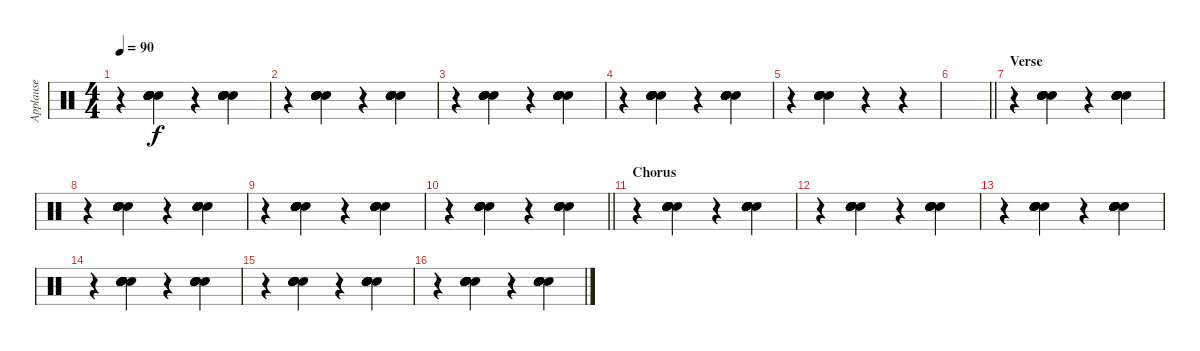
\track ("Applause" "Applause") {instrument percussion}
\staff {score}
\articulation defaults
\ts (4 4)
\tempo 90
\clef neutral
\ks c
r.4{dy f} ("Hand Clap (hit)" "Hand Clap (hit)" "Hand Clap (hit)" "Hand Clap (hit)" "Hand Clap (hit)" "Hand Clap (hit)").4 r.4 ("Hand Clap (hit)" "Hand Clap (hit)" "Hand Clap (hit)" "Hand Clap (hit)" "Hand Clap (hit)" "Hand Clap (hit)").4 |
r.4 ("Hand Clap (hit)" "Hand Clap (hit)" "Hand Clap (hit)" "Hand Clap (hit)" "Hand Clap (hit)" "Hand Clap (hit)").4 r.4 ("Hand Clap (hit)" "Hand Clap (hit)" "Hand Clap (hit)" "Hand Clap (hit)" "Hand Clap (hit)" "Hand Clap (hit)").4 |
r.4 ("Hand Clap (hit)" "Hand Clap (hit)" "Hand Clap (hit)" "Hand Clap (hit)" "Hand Clap (hit)" "Hand Clap (hit)").4 r.4 ("Hand Clap (hit)" "Hand Clap (hit)" "Hand Clap (hit)" "Hand Clap (hit)" "Hand Clap (hit)" "Hand Clap (hit)").4 |
r.4 ("Hand Clap (hit)" "Hand Clap (hit)" "Hand Clap (hit)" "Hand Clap (hit)" "Hand Clap (hit)" "Hand Clap (hit)").4 r.4 ("Hand Clap (hit)" "Hand Clap (hit)" "Hand Clap (hit)" "Hand Clap (hit)" "Hand Clap (hit)" "Hand Clap (hit)").4 |
r.4 ("Hand Clap (hit)" "Hand Clap (hit)" "Hand Clap (hit)" "Hand Clap (hit)" "Hand Clap (hit)" "Hand Clap (hit)").4 r.4 r.4 |
\barLineRight lightlight
|
\section ("" "Verse")
r.4 ("Hand Clap (hit)" "Hand Clap (hit)" "Hand Clap (hit)" "Hand Clap (hit)" "Hand Clap (hit)" "Hand Clap (hit)").4 r.4 ("Hand Clap (hit)" "Hand Clap (hit)" "Hand Clap (hit)" "Hand Clap (hit)" "Hand Clap (hit)" "Hand Clap (hit)").4 |
r.4 ("Hand Clap (hit)" "Hand Clap (hit)" "Hand Clap (hit)" "Hand Clap (hit)" "Hand Clap (hit)" "Hand Clap (hit)").4 r.4 ("Hand Clap (hit)" "Hand Clap (hit)" "Hand Clap (hit)" "Hand Clap (hit)" "Hand Clap (hit)" "Hand Clap (hit)").4 |
r.4 ("Hand Clap (hit)" "Hand Clap (hit)" "Hand Clap (hit)" "Hand Clap (hit)" "Hand Clap (hit)" "Hand Clap (hit)").4 r.4 ("Hand Clap (hit)" "Hand Clap (hit)" "Hand Clap (hit)" "Hand Clap (hit)" "Hand Clap (hit)" "Hand Clap (hit)").4 |
\barLineRight lightlight
r.4 ("Hand Clap (hit)" "Hand Clap (hit)" "Hand Clap (hit)" "Hand Clap (hit)" "Hand Clap (hit)" "Hand Clap (hit)").4 r.4 ("Hand Clap (hit)" "Hand Clap (hit)" "Hand Clap (hit)" "Hand Clap (hit)" "Hand Clap (hit)" "Hand Clap (hit)").4 |
\section ("" "Chorus")
r.4 ("Hand Clap (hit)" "Hand Clap (hit)" "Hand Clap (hit)" "Hand Clap (hit)" "Hand Clap (hit)" "Hand Clap (hit)").4 r.4 ("Hand Clap (hit)" "Hand Clap (hit)" "Hand Clap (hit)" "Hand Clap (hit)" "Hand Clap (hit)" "Hand Clap (hit)").4 |
r.4 ("Hand Clap (hit)" "Hand Clap (hit)" "Hand Clap (hit)" "Hand Clap (hit)" "Hand Clap (hit)" "Hand Clap (hit)").4 r.4 ("Hand Clap (hit)" "Hand Clap (hit)" "Hand Clap (hit)" "Hand Clap (hit)" "Hand Clap (hit)" "Hand Clap (hit)").4 |
r.4 ("Hand Clap (hit)" "Hand Clap (hit)" "Hand Clap (hit)" "Hand Clap (hit)" "Hand Clap (hit)" "Hand Clap (hit)").4 r.4 ("Hand Clap (hit)" "Hand Clap (hit)" "Hand Clap (hit)" "Hand Clap (hit)" "Hand Clap (hit)" "Hand Clap (hit)").4 |
r.4 ("Hand Clap (hit)" "Hand Clap (hit)" "Hand Clap (hit)" "Hand Clap (hit)" "Hand Clap (hit)" "Hand Clap (hit)").4 r.4 ("Hand Clap (hit)" "Hand Clap (hit)" "Hand Clap (hit)" "Hand Clap (hit)" "Hand Clap (hit)" "Hand Clap (hit)").4 |
r.4 ("Hand Clap (hit)" "Hand Clap (hit)" "Hand Clap (hit)" "Hand Clap (hit)" "Hand Clap (hit)" "Hand Clap (hit)").4 r.4 ("Hand Clap (hit)" "Hand Clap (hit)" "Hand Clap (hit)" "Hand Clap (hit)" "Hand Clap (hit)" "Hand Clap (hit)").4 |
r.4 ("Hand Clap (hit)" "Hand Clap (hit)" "Hand Clap (hit)" "Hand Clap (hit)" "Hand Clap (hit)" "Hand Clap (hit)").4 r.4 ("Hand Clap (hit)" "Hand Clap (hit)" "Hand Clap (hit)" "Hand Clap (hit)" "Hand Clap (hit)" "Hand Clap (hit)").4
